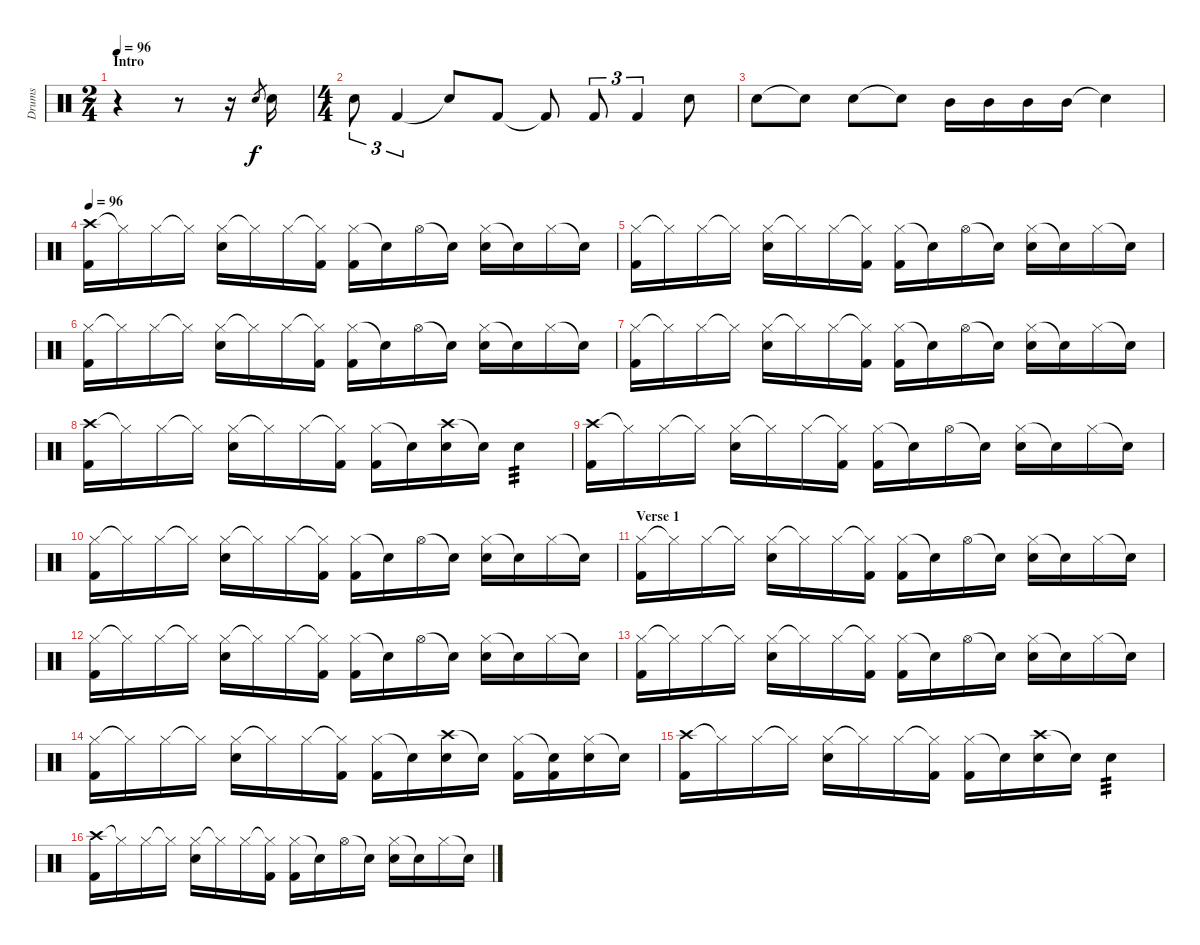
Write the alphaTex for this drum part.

\track ("Drums" "Drums") {instrument percussion}
\staff {score}
\articulation defaults
\ts (2 4)
\section ("" "Intro")
\tempo 96
\tempo 149
\tempo 96
\clef neutral
\ks c
r.4{dy f} r.8 r.16 "Electric Snare (hit)".8{gr} "Electric Snare (hit)".16 |
\ts (4 4)
"Electric Snare (hit)".8{tu (3 2)} "Kick (hit) 2".4{tu (3 2)} "Snare (hit)"{t}.8 "Kick (hit) 2".8 "Kick (hit) 2"{t}.8 "Kick (hit) 2".8{tu (3 2)} "Kick (hit) 2".4{tu (3 2)} "Electric Snare (hit)".8 |
"Electric Snare (hit)".8 "Snare (hit)"{t}.8 "Electric Snare (hit)".8 "Snare (hit)"{t}.8 "Mid Tom (hit)".16 "Mid Tom (hit)".16 "Mid Tom (hit)".16 "Mid Tom (hit)".16 "Snare (hit)"{t}.4 |
\tempo 96
("Crash high (hit)" "Kick (hit) 2").16 "Hi-Hat (closed)"{t}.16 "Hi-Hat (closed)".16 "Hi-Hat (closed)"{t}.16 ("Hi-Hat (closed)" "Electric Snare (hit)").16 "Hi-Hat (closed)"{t}.16 "Hi-Hat (closed)".16 ("Hi-Hat (closed)"{t} "Kick (hit) 2").16 ("Hi-Hat (closed)" "Kick (hit) 2").16 "Snare (hit)"{t}.16 "Hi-Hat (open)".16 "Snare (hit)"{t}.16 ("Hi-Hat (closed)" "Electric Snare (hit)").16 "Snare (hit)"{t}.16 "Hi-Hat (closed)".16 "Snare (hit)"{t}.16 |
("Hi-Hat (closed)" "Kick (hit) 2").16 "Hi-Hat (closed)"{t}.16 "Hi-Hat (closed)".16 "Hi-Hat (closed)"{t}.16 ("Hi-Hat (closed)" "Electric Snare (hit)").16 "Hi-Hat (closed)"{t}.16 "Hi-Hat (closed)".16 ("Hi-Hat (closed)"{t} "Kick (hit) 2").16 ("Hi-Hat (closed)" "Kick (hit) 2").16 "Snare (hit)"{t}.16 "Hi-Hat (open)".16 "Snare (hit)"{t}.16 ("Hi-Hat (closed)" "Electric Snare (hit)").16 "Snare (hit)"{t}.16 "Hi-Hat (closed)".16 "Snare (hit)"{t}.16 |
("Hi-Hat (closed)" "Kick (hit) 2").16 "Hi-Hat (closed)"{t}.16 "Hi-Hat (closed)".16 "Hi-Hat (closed)"{t}.16 ("Hi-Hat (closed)" "Electric Snare (hit)").16 "Hi-Hat (closed)"{t}.16 "Hi-Hat (closed)".16 ("Hi-Hat (closed)"{t} "Kick (hit) 2").16 ("Hi-Hat (closed)" "Kick (hit) 2").16 "Snare (hit)"{t}.16 "Hi-Hat (open)".16 "Snare (hit)"{t}.16 ("Hi-Hat (closed)" "Electric Snare (hit)").16 "Snare (hit)"{t}.16 "Hi-Hat (closed)".16 "Snare (hit)"{t}.16 |
("Hi-Hat (closed)" "Kick (hit) 2").16 "Hi-Hat (closed)"{t}.16 "Hi-Hat (closed)".16 "Hi-Hat (closed)"{t}.16 ("Hi-Hat (closed)" "Electric Snare (hit)").16 "Hi-Hat (closed)"{t}.16 "Hi-Hat (closed)".16 ("Hi-Hat (closed)"{t} "Kick (hit) 2").16 ("Hi-Hat (closed)" "Kick (hit) 2").16 "Snare (hit)"{t}.16 "Hi-Hat (open)".16 "Snare (hit)"{t}.16 ("Hi-Hat (closed)" "Electric Snare (hit)").16 "Snare (hit)"{t}.16 "Hi-Hat (closed)".16 "Snare (hit)"{t}.16 |
("Crash high (hit)" "Kick (hit) 2").16 "Hi-Hat (closed)"{t}.16 "Hi-Hat (closed)".16 "Hi-Hat (closed)"{t}.16 ("Hi-Hat (closed)" "Electric Snare (hit)").16 "Hi-Hat (closed)"{t}.16 "Hi-Hat (closed)".16 ("Hi-Hat (closed)"{t} "Kick (hit) 2").16 ("Hi-Hat (closed)" "Kick (hit) 2").16 "Snare (hit)"{t}.16 ("Crash high (hit)" "Electric Snare (hit)").16 "Snare (hit)"{t}.16 "Electric Snare (hit)".4{tp 3} |
("Crash high (hit)" "Kick (hit) 2").16 "Hi-Hat (closed)"{t}.16 "Hi-Hat (closed)".16 "Hi-Hat (closed)"{t}.16 ("Hi-Hat (closed)" "Electric Snare (hit)").16 "Hi-Hat (closed)"{t}.16 "Hi-Hat (closed)".16 ("Hi-Hat (closed)"{t} "Kick (hit) 2").16 ("Hi-Hat (closed)" "Kick (hit) 2").16 "Snare (hit)"{t}.16 "Hi-Hat (open)".16 "Snare (hit)"{t}.16 ("Hi-Hat (closed)" "Electric Snare (hit)").16 "Snare (hit)"{t}.16 "Hi-Hat (closed)".16 "Snare (hit)"{t}.16 |
("Hi-Hat (closed)" "Kick (hit) 2").16 "Hi-Hat (closed)"{t}.16 "Hi-Hat (closed)".16 "Hi-Hat (closed)"{t}.16 ("Hi-Hat (closed)" "Electric Snare (hit)").16 "Hi-Hat (closed)"{t}.16 "Hi-Hat (closed)".16 ("Hi-Hat (closed)"{t} "Kick (hit) 2").16 ("Hi-Hat (closed)" "Kick (hit) 2").16 "Snare (hit)"{t}.16 "Hi-Hat (open)".16 "Snare (hit)"{t}.16 ("Hi-Hat (closed)" "Electric Snare (hit)").16 "Snare (hit)"{t}.16 "Hi-Hat (closed)".16 "Snare (hit)"{t}.16 |
\section ("" "Verse 1")
("Hi-Hat (closed)" "Kick (hit) 2").16 "Hi-Hat (closed)"{t}.16 "Hi-Hat (closed)".16 "Hi-Hat (closed)"{t}.16 ("Hi-Hat (closed)" "Electric Snare (hit)").16 "Hi-Hat (closed)"{t}.16 "Hi-Hat (closed)".16 ("Hi-Hat (closed)"{t} "Kick (hit) 2").16 ("Hi-Hat (closed)" "Kick (hit) 2").16 "Snare (hit)"{t}.16 "Hi-Hat (open)".16 "Snare (hit)"{t}.16 ("Hi-Hat (closed)" "Electric Snare (hit)").16 "Snare (hit)"{t}.16 "Hi-Hat (closed)".16 "Snare (hit)"{t}.16 |
("Hi-Hat (closed)" "Kick (hit) 2").16 "Hi-Hat (closed)"{t}.16 "Hi-Hat (closed)".16 "Hi-Hat (closed)"{t}.16 ("Hi-Hat (closed)" "Electric Snare (hit)").16 "Hi-Hat (closed)"{t}.16 "Hi-Hat (closed)".16 ("Hi-Hat (closed)"{t} "Kick (hit) 2").16 ("Hi-Hat (closed)" "Kick (hit) 2").16 "Snare (hit)"{t}.16 "Hi-Hat (open)".16 "Snare (hit)"{t}.16 ("Hi-Hat (closed)" "Electric Snare (hit)").16 "Snare (hit)"{t}.16 "Hi-Hat (closed)".16 "Snare (hit)"{t}.16 |
("Hi-Hat (closed)" "Kick (hit) 2").16 "Hi-Hat (closed)"{t}.16 "Hi-Hat (closed)".16 "Hi-Hat (closed)"{t}.16 ("Hi-Hat (closed)" "Electric Snare (hit)").16 "Hi-Hat (closed)"{t}.16 "Hi-Hat (closed)".16 ("Hi-Hat (closed)"{t} "Kick (hit) 2").16 ("Hi-Hat (closed)" "Kick (hit) 2").16 "Snare (hit)"{t}.16 "Hi-Hat (open)".16 "Snare (hit)"{t}.16 ("Hi-Hat (closed)" "Electric Snare (hit)").16 "Snare (hit)"{t}.16 "Hi-Hat (closed)".16 "Snare (hit)"{t}.16 |
("Hi-Hat (closed)" "Kick (hit) 2").16 "Hi-Hat (closed)"{t}.16 "Hi-Hat (closed)".16 "Hi-Hat (closed)"{t}.16 ("Hi-Hat (closed)" "Electric Snare (hit)").16 "Hi-Hat (closed)"{t}.16 "Hi-Hat (closed)".16 ("Hi-Hat (closed)"{t} "Kick (hit) 2").16 ("Hi-Hat (closed)" "Kick (hit) 2").16 "Snare (hit)"{t}.16 ("Crash high (hit)" "Electric Snare (hit)").16 "Snare (hit)"{t}.16 ("Hi-Hat (closed)" "Kick (hit) 2").16 ("Snare (hit)"{t} "Kick (hit) 2").16 ("Hi-Hat (closed)" "Electric Snare (hit)").16 "Snare (hit)"{t}.16 |
("Crash high (hit)" "Kick (hit) 2").16 "Hi-Hat (closed)"{t}.16 "Hi-Hat (closed)".16 "Hi-Hat (closed)"{t}.16 ("Hi-Hat (closed)" "Electric Snare (hit)").16 "Hi-Hat (closed)"{t}.16 "Hi-Hat (closed)".16 ("Hi-Hat (closed)"{t} "Kick (hit) 2").16 ("Hi-Hat (closed)" "Kick (hit) 2").16 "Snare (hit)"{t}.16 ("Crash high (hit)" "Electric Snare (hit)").16 "Snare (hit)"{t}.16 "Electric Snare (hit)".4{tp 3} |
("Crash high (hit)" "Kick (hit) 2").16 "Hi-Hat (closed)"{t}.16 "Hi-Hat (closed)".16 "Hi-Hat (closed)"{t}.16 ("Hi-Hat (closed)" "Electric Snare (hit)").16 "Hi-Hat (closed)"{t}.16 "Hi-Hat (closed)".16 ("Hi-Hat (closed)"{t} "Kick (hit) 2").16 ("Hi-Hat (closed)" "Kick (hit) 2").16 "Snare (hit)"{t}.16 "Hi-Hat (open)".16 "Snare (hit)"{t}.16 ("Hi-Hat (closed)" "Electric Snare (hit)").16 "Snare (hit)"{t}.16 "Hi-Hat (closed)".16 "Snare (hit)"{t}.16
